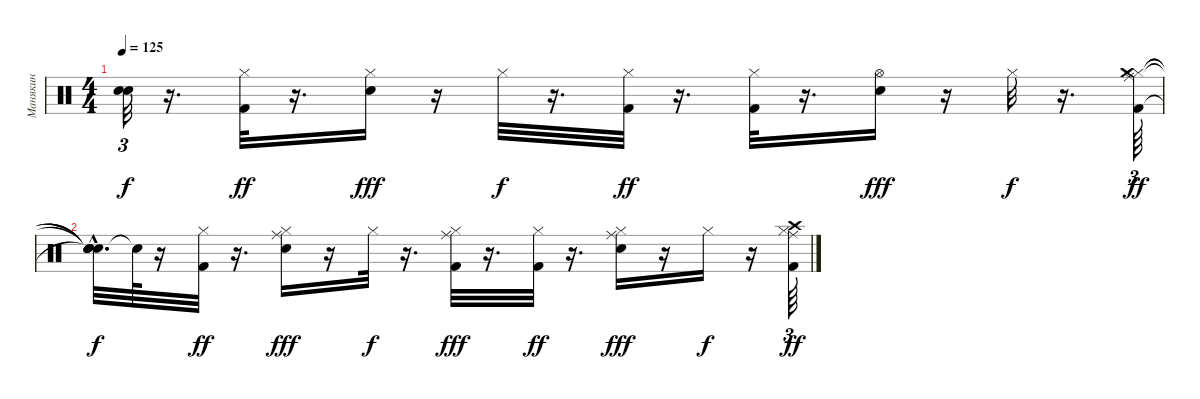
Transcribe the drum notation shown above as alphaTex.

\track ("Манякин" "Манякин") {instrument percussion}
\staff {score}
\articulation defaults
\ts (4 4)
\tempo 125
\clef neutral
\ks c
("Snare (hit)"{t} "Snare (hit)"{t}).32{tu (3 2) dy f} r.16{d} ("Kick (hit) 2" "Hi-Hat (closed)").32{dy ff} r.16{d} ("Snare (hit) 2" "Hi-Hat (closed)").16{dy fff} r.16 "Hi-Hat (closed)".32{dy f} r.16{d} ("Kick (hit) 2" "Hi-Hat (closed)").32{dy ff} r.16{d} ("Kick (hit) 2" "Hi-Hat (closed)").32 r.16{d} ("Snare (hit) 2" "Hi-Hat (open)").16{dy fff} r.16 "Hi-Hat (closed)".32{dy f} r.16{d} ("Kick (hit) 2" "Hi-Hat (closed)" "Ride (middle)" "Crash medium (hit)").64{tu (3 2) dy ff} |
("Snare (hit)"{t} "Snare (hit)"{t} "Snare (hit)"{t} "Snare (hit)"{hac t}).32{d dy f} "Snare (hit)"{t}.64 r.16 ("Kick (hit) 2" "Hi-Hat (closed)").32{dy ff} r.16{d} ("Snare (hit) 2" "Hi-Hat (closed)" "Ride (middle)").16{dy fff} r.16 "Hi-Hat (closed)".32{dy f} r.16{d} ("Kick (hit) 2" "Hi-Hat (closed)" "Ride (middle)").32{dy fff} r.16{d} ("Kick (hit) 2" "Hi-Hat (closed)").32{dy ff} r.16{d} ("Snare (hit) 2" "Hi-Hat (closed)" "Ride (middle)").16{dy fff} r.16 "Hi-Hat (closed)".16{dy f} r.16 ("Kick (hit) 2" "Hi-Hat (closed)" "Ride (middle)" "Crash high (hit)").64{tu (3 2) dy ff}
